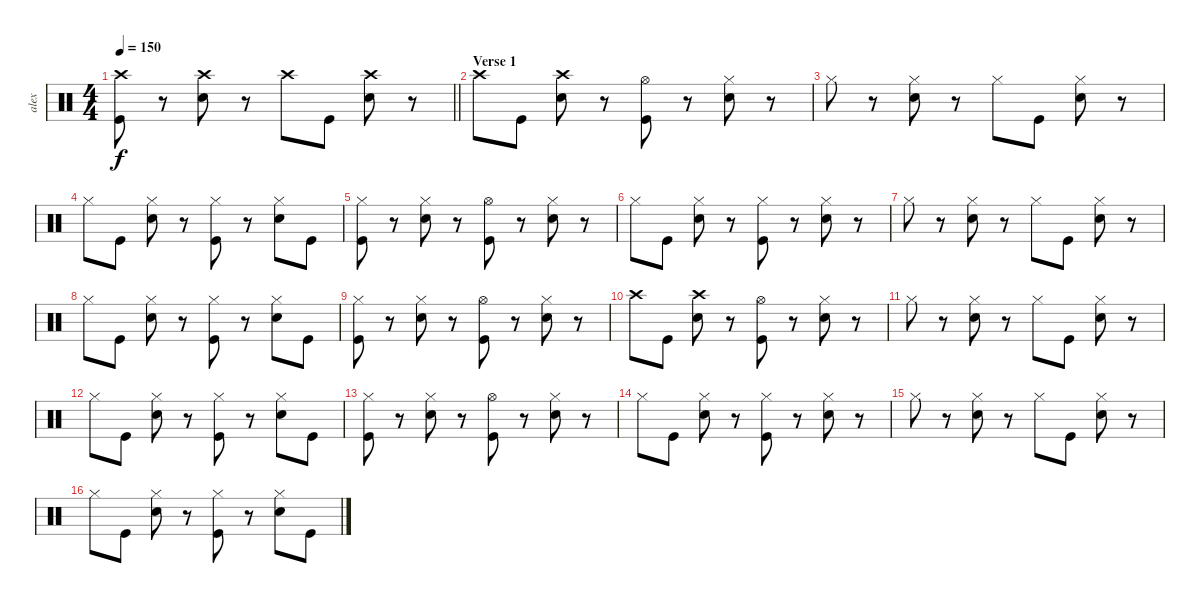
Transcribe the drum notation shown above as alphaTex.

\track ("alex" "alex") {instrument percussion}
\staff {score}
\articulation defaults
\ts (4 4)
\tempo 150
\clef neutral
\barLineRight lightlight
\ks c
("Crash high (hit)" "Kick (hit)").8{dy f} r.8 ("Crash high (hit)" "Snare (hit) 2").8 r.8 "Crash high (hit)".8 "Kick (hit)".8 ("Crash high (hit)" "Snare (hit) 2").8 r.8 |
\section ("" "Verse 1")
"Crash high (hit)".8 "Kick (hit)".8 ("Crash high (hit)" "Snare (hit) 2").8 r.8 ("Hi-Hat (open)" "Kick (hit)").8 r.8 ("Hi-Hat (closed)" "Snare (hit) 2").8 r.8 |
"Hi-Hat (closed)".8 r.8 ("Hi-Hat (closed)" "Snare (hit) 2").8 r.8 "Hi-Hat (closed)".8 "Kick (hit)".8 ("Hi-Hat (closed)" "Snare (hit) 2").8 r.8 |
"Hi-Hat (closed)".8 "Kick (hit)".8 ("Hi-Hat (closed)" "Snare (hit) 2").8 r.8 ("Hi-Hat (closed)" "Kick (hit)").8 r.8 ("Hi-Hat (closed)" "Snare (hit) 2").8 "Kick (hit)".8 |
("Hi-Hat (closed)" "Kick (hit)").8 r.8 ("Hi-Hat (closed)" "Snare (hit) 2").8 r.8 ("Hi-Hat (open)" "Kick (hit)").8 r.8 ("Hi-Hat (closed)" "Snare (hit) 2").8 r.8 |
"Hi-Hat (closed)".8 "Kick (hit)".8 ("Hi-Hat (closed)" "Snare (hit) 2").8 r.8 ("Hi-Hat (closed)" "Kick (hit)").8 r.8 ("Hi-Hat (closed)" "Snare (hit) 2").8 r.8 |
"Hi-Hat (closed)".8 r.8 ("Hi-Hat (closed)" "Snare (hit) 2").8 r.8 "Hi-Hat (closed)".8 "Kick (hit)".8 ("Hi-Hat (closed)" "Snare (hit) 2").8 r.8 |
"Hi-Hat (closed)".8 "Kick (hit)".8 ("Hi-Hat (closed)" "Snare (hit) 2").8 r.8 ("Hi-Hat (closed)" "Kick (hit)").8 r.8 ("Hi-Hat (closed)" "Snare (hit) 2").8 "Kick (hit)".8 |
("Hi-Hat (closed)" "Kick (hit)").8 r.8 ("Hi-Hat (closed)" "Snare (hit) 2").8 r.8 ("Hi-Hat (open)" "Kick (hit)").8 r.8 ("Hi-Hat (closed)" "Snare (hit) 2").8 r.8 |
"Crash high (hit)".8 "Kick (hit)".8 ("Crash high (hit)" "Snare (hit) 2").8 r.8 ("Hi-Hat (open)" "Kick (hit)").8 r.8 ("Hi-Hat (closed)" "Snare (hit) 2").8 r.8 |
"Hi-Hat (closed)".8 r.8 ("Hi-Hat (closed)" "Snare (hit) 2").8 r.8 "Hi-Hat (closed)".8 "Kick (hit)".8 ("Hi-Hat (closed)" "Snare (hit) 2").8 r.8 |
"Hi-Hat (closed)".8 "Kick (hit)".8 ("Hi-Hat (closed)" "Snare (hit) 2").8 r.8 ("Hi-Hat (closed)" "Kick (hit)").8 r.8 ("Hi-Hat (closed)" "Snare (hit) 2").8 "Kick (hit)".8 |
("Hi-Hat (closed)" "Kick (hit)").8 r.8 ("Hi-Hat (closed)" "Snare (hit) 2").8 r.8 ("Hi-Hat (open)" "Kick (hit)").8 r.8 ("Hi-Hat (closed)" "Snare (hit) 2").8 r.8 |
"Hi-Hat (closed)".8 "Kick (hit)".8 ("Hi-Hat (closed)" "Snare (hit) 2").8 r.8 ("Hi-Hat (closed)" "Kick (hit)").8 r.8 ("Hi-Hat (closed)" "Snare (hit) 2").8 r.8 |
"Hi-Hat (closed)".8 r.8 ("Hi-Hat (closed)" "Snare (hit) 2").8 r.8 "Hi-Hat (closed)".8 "Kick (hit)".8 ("Hi-Hat (closed)" "Snare (hit) 2").8 r.8 |
"Hi-Hat (closed)".8 "Kick (hit)".8 ("Hi-Hat (closed)" "Snare (hit) 2").8 r.8 ("Hi-Hat (closed)" "Kick (hit)").8 r.8 ("Hi-Hat (closed)" "Snare (hit) 2").8 "Kick (hit)".8
